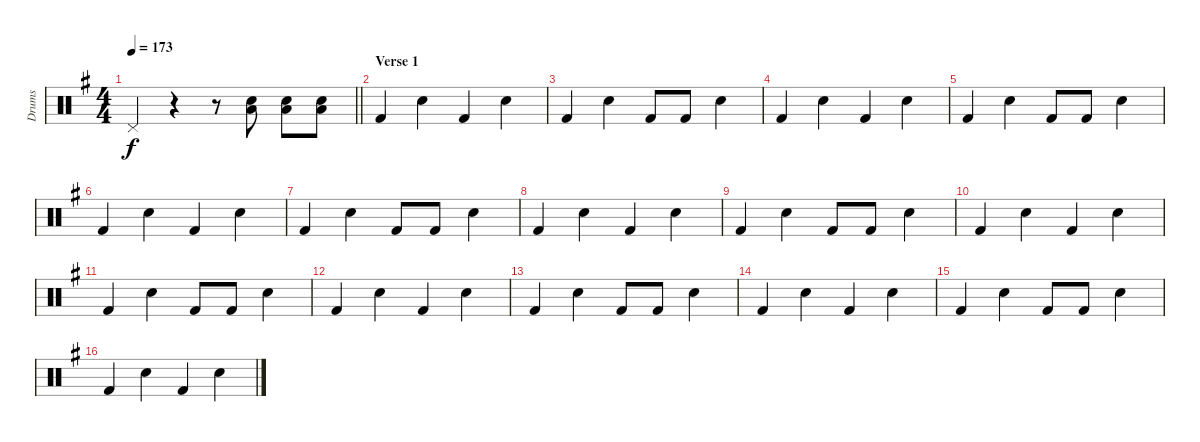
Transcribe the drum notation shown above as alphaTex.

\track ("Drums" "Drums") {instrument percussion}
\staff {score}
\articulation defaults
\ts (4 4)
\tempo 173
\clef neutral
\barLineRight lightlight
\ks g "Pedal Hi-Hat (hit)".4{dy f}
r.4 r.8 ("Snare (hit) 2" "Low Tom (hit)").8 ("Snare (hit) 2" "Low Tom (hit)").8 ("Snare (hit) 2" "Low Tom (hit)").8 |
\section ("" "Verse 1")
"Kick (hit) 2".4 "Snare (hit) 2".4 "Kick (hit) 2".4 "Snare (hit) 2".4 |
"Kick (hit) 2".4 "Snare (hit) 2".4 "Kick (hit) 2".8 "Kick (hit) 2".8 "Snare (hit) 2".4 |
"Kick (hit) 2".4 "Snare (hit) 2".4 "Kick (hit) 2".4 "Snare (hit) 2".4 |
"Kick (hit) 2".4 "Snare (hit) 2".4 "Kick (hit) 2".8 "Kick (hit) 2".8 "Snare (hit) 2".4 |
"Kick (hit) 2".4 "Snare (hit) 2".4 "Kick (hit) 2".4 "Snare (hit) 2".4 |
"Kick (hit) 2".4 "Snare (hit) 2".4 "Kick (hit) 2".8 "Kick (hit) 2".8 "Snare (hit) 2".4 |
"Kick (hit) 2".4 "Snare (hit) 2".4 "Kick (hit) 2".4 "Snare (hit) 2".4 |
"Kick (hit) 2".4 "Snare (hit) 2".4 "Kick (hit) 2".8 "Kick (hit) 2".8 "Snare (hit) 2".4 |
"Kick (hit) 2".4 "Snare (hit) 2".4 "Kick (hit) 2".4 "Snare (hit) 2".4 |
"Kick (hit) 2".4 "Snare (hit) 2".4 "Kick (hit) 2".8 "Kick (hit) 2".8 "Snare (hit) 2".4 |
"Kick (hit) 2".4 "Snare (hit) 2".4 "Kick (hit) 2".4 "Snare (hit) 2".4 |
"Kick (hit) 2".4 "Snare (hit) 2".4 "Kick (hit) 2".8 "Kick (hit) 2".8 "Snare (hit) 2".4 |
"Kick (hit) 2".4 "Snare (hit) 2".4 "Kick (hit) 2".4 "Snare (hit) 2".4 |
"Kick (hit) 2".4 "Snare (hit) 2".4 "Kick (hit) 2".8 "Kick (hit) 2".8 "Snare (hit) 2".4 |
"Kick (hit) 2".4 "Snare (hit) 2".4 "Kick (hit) 2".4 "Snare (hit) 2".4
